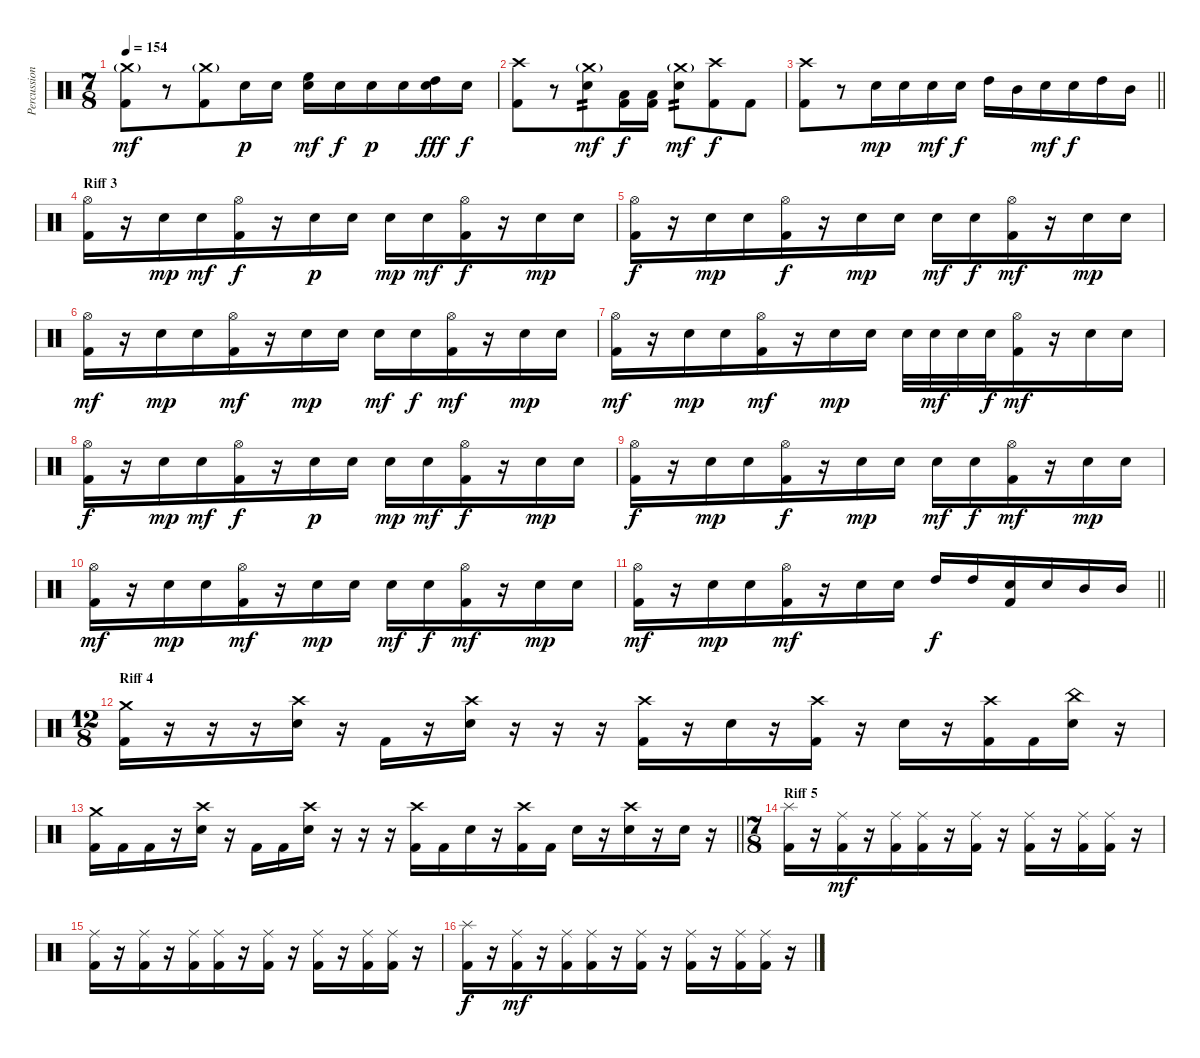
\track ("Percussions" "Percussion") {instrument percussion}
\staff {score}
\articulation defaults
\ts (7 8)
\tempo 154
\clef neutral
\ks c
("Crash medium (hit)"{g} "Kick (hit) 2").8{dy mf} r.8 ("Crash medium (hit)"{g} "Kick (hit) 2").8 "Electric Snare (hit)".16{dy p} "Electric Snare (hit)".16 ("High Floor Tom (hit)" "Electric Snare (hit)").16{dy mf} "Electric Snare (hit)".16{dy f} "Electric Snare (hit)".16{dy p} "Electric Snare (hit)".16 ("High Tom (hit)" "Electric Snare (hit)").16{dy fff} "Electric Snare (hit)".16{dy f} |
("Crash high (hit)" "Kick (hit) 2").8 r.8 ("Crash medium (hit)"{g} "Electric Snare (hit)").8{tp 2 dy mf} ("Low Floor Tom (hit)" "Kick (hit) 2").16{dy f} ("Low Floor Tom (hit)" "Kick (hit) 2").16 ("Crash medium (hit)"{g} "Electric Snare (hit)").8{tp 2 dy mf} ("Crash high (hit)" "Kick (hit) 2").8{dy f} "Kick (hit) 2".8 |
\barLineRight lightlight
("Crash high (hit)" "Kick (hit) 2").8 r.8 "Electric Snare (hit)".16{dy mp} "Electric Snare (hit)".16 "Electric Snare (hit)".16{dy mf} "Electric Snare (hit)".16{dy f} "High Tom (hit)".16 "Mid Tom (hit)".16 "Electric Snare (hit)".16{dy mf} "Electric Snare (hit)".16{dy f} "High Tom (hit)".16 "Mid Tom (hit)".16 |
\section ("" "Riff 3")
("Hi-Hat (open)" "Kick (hit) 2").16 r.16 "Electric Snare (hit)".16{dy mp} "Electric Snare (hit)".16{dy mf} ("Hi-Hat (open)" "Kick (hit) 2").16{dy f} r.16 "Electric Snare (hit)".16{dy p} "Electric Snare (hit)".16 "Electric Snare (hit)".16{dy mp} "Electric Snare (hit)".16{dy mf} ("Hi-Hat (open)" "Kick (hit) 2").16{dy f} r.16 "Electric Snare (hit)".16{dy mp} "Electric Snare (hit)".16 |
("Hi-Hat (open)" "Kick (hit) 2").16{dy f} r.16 "Electric Snare (hit)".16{dy mp} "Electric Snare (hit)".16 ("Hi-Hat (open)" "Kick (hit) 2").16{dy f} r.16 "Electric Snare (hit)".16{dy mp} "Electric Snare (hit)".16 "Electric Snare (hit)".16{dy mf} "Electric Snare (hit)".16{dy f} ("Hi-Hat (open)" "Kick (hit) 2").16{dy mf} r.16 "Electric Snare (hit)".16{dy mp} "Electric Snare (hit)".16 |
("Hi-Hat (open)" "Kick (hit) 2").16{dy mf} r.16 "Electric Snare (hit)".16{dy mp} "Electric Snare (hit)".16 ("Hi-Hat (open)" "Kick (hit) 2").16{dy mf} r.16 "Electric Snare (hit)".16{dy mp} "Electric Snare (hit)".16 "Electric Snare (hit)".16{dy mf} "Electric Snare (hit)".16{dy f} ("Hi-Hat (open)" "Kick (hit) 2").16{dy mf} r.16 "Electric Snare (hit)".16{dy mp} "Electric Snare (hit)".16 |
("Hi-Hat (open)" "Kick (hit) 2").16{dy mf} r.16 "Electric Snare (hit)".16{dy mp} "Electric Snare (hit)".16 ("Hi-Hat (open)" "Kick (hit) 2").16{dy mf} r.16 "Electric Snare (hit)".16{dy mp} "Electric Snare (hit)".16 "Electric Snare (hit)".32 "Electric Snare (hit)".32{dy mf} "Electric Snare (hit)".32 "Electric Snare (hit)".32{dy f} ("Hi-Hat (open)" "Kick (hit) 2").16{dy mf} r.16 "Electric Snare (hit)".16 "Electric Snare (hit)".16 |
("Hi-Hat (open)" "Kick (hit) 2").16{dy f} r.16 "Electric Snare (hit)".16{dy mp} "Electric Snare (hit)".16{dy mf} ("Hi-Hat (open)" "Kick (hit) 2").16{dy f} r.16 "Electric Snare (hit)".16{dy p} "Electric Snare (hit)".16 "Electric Snare (hit)".16{dy mp} "Electric Snare (hit)".16{dy mf} ("Hi-Hat (open)" "Kick (hit) 2").16{dy f} r.16 "Electric Snare (hit)".16{dy mp} "Electric Snare (hit)".16 |
("Hi-Hat (open)" "Kick (hit) 2").16{dy f} r.16 "Electric Snare (hit)".16{dy mp} "Electric Snare (hit)".16 ("Hi-Hat (open)" "Kick (hit) 2").16{dy f} r.16 "Electric Snare (hit)".16{dy mp} "Electric Snare (hit)".16 "Electric Snare (hit)".16{dy mf} "Electric Snare (hit)".16{dy f} ("Hi-Hat (open)" "Kick (hit) 2").16{dy mf} r.16 "Electric Snare (hit)".16{dy mp} "Electric Snare (hit)".16 |
("Hi-Hat (open)" "Kick (hit) 2").16{dy mf} r.16 "Electric Snare (hit)".16{dy mp} "Electric Snare (hit)".16 ("Hi-Hat (open)" "Kick (hit) 2").16{dy mf} r.16 "Electric Snare (hit)".16{dy mp} "Electric Snare (hit)".16 "Electric Snare (hit)".16{dy mf} "Electric Snare (hit)".16{dy f} ("Hi-Hat (open)" "Kick (hit) 2").16{dy mf} r.16 "Electric Snare (hit)".16{dy mp} "Electric Snare (hit)".16 |
\barLineRight lightlight
("Hi-Hat (open)" "Kick (hit) 2").16{dy mf} r.16 "Electric Snare (hit)".16{dy mp} "Electric Snare (hit)".16 ("Hi-Hat (open)" "Kick (hit) 2").16{dy mf} r.16 "Electric Snare (hit)".16 "Electric Snare (hit)".16 "High Tom (hit)".16{dy f} "High Tom (hit)".16 ("Electric Snare (hit)" "Kick (hit) 2").16 "Electric Snare (hit)".16 "Mid Tom (hit)".16 "Mid Tom (hit)".16 |
\ts (12 8)
\section ("" "Riff 4")
("Crash medium (hit)" "Kick (hit) 2").16 r.16 r.16 r.16 ("Crash high (hit)" "Electric Snare (hit)").16 r.16 "Kick (hit) 2".16 r.16 ("Crash high (hit)" "Electric Snare (hit)").16 r.16 r.16 r.16 ("Crash high (hit)" "Kick (hit) 2").16 r.16 "Electric Snare (hit)".16 r.16 ("Crash high (hit)" "Kick (hit) 2").16 r.16 "Electric Snare (hit)".16 r.16 ("Crash high (hit)" "Kick (hit) 2").16 "Kick (hit) 2".16 ("China (hit)" "Electric Snare (hit)").16 r.16 |
\barLineRight lightlight
("Crash medium (hit)" "Kick (hit) 2").16 "Kick (hit) 2".16 "Kick (hit) 2".16 r.16 ("Crash high (hit)" "Electric Snare (hit)").16 r.16 "Kick (hit) 2".16 "Kick (hit) 2".16 ("Crash high (hit)" "Electric Snare (hit)").16 r.16 r.16 r.16 ("Crash high (hit)" "Kick (hit) 2").16 "Kick (hit) 2".16 "Electric Snare (hit)".16 r.16 ("Crash high (hit)" "Kick (hit) 2").16 "Kick (hit) 2".16 "Electric Snare (hit)".16 r.16 ("Crash high (hit)" "Electric Snare (hit)").16 r.16 "Electric Snare (hit)".16 r.16 |
\ts (7 8)
\section ("" "Riff 5")
("Splash (hit)" "Kick (hit) 2").16 r.16 ("Ride (middle)" "Kick (hit) 2").16{dy mf} r.16 ("Ride (middle)" "Kick (hit) 2").16 ("Ride (middle)" "Kick (hit) 2").16 r.16 ("Ride (middle)" "Kick (hit) 2").16 r.16 ("Ride (middle)" "Kick (hit) 2").16 r.16 ("Ride (middle)" "Kick (hit) 2").16 ("Ride (middle)" "Kick (hit) 2").16 r.16 |
("Ride (middle)" "Kick (hit) 2").16 r.16 ("Ride (middle)" "Kick (hit) 2").16 r.16 ("Ride (middle)" "Kick (hit) 2").16 ("Ride (middle)" "Kick (hit) 2").16 r.16 ("Ride (middle)" "Kick (hit) 2").16 r.16 ("Ride (middle)" "Kick (hit) 2").16 r.16 ("Ride (middle)" "Kick (hit) 2").16 ("Ride (middle)" "Kick (hit) 2").16 r.16 |
("Splash (hit)" "Kick (hit) 2").16{dy f} r.16 ("Ride (middle)" "Kick (hit) 2").16{dy mf} r.16 ("Ride (middle)" "Kick (hit) 2").16 ("Ride (middle)" "Kick (hit) 2").16 r.16 ("Ride (middle)" "Kick (hit) 2").16 r.16 ("Ride (middle)" "Kick (hit) 2").16 r.16 ("Ride (middle)" "Kick (hit) 2").16 ("Ride (middle)" "Kick (hit) 2").16 r.16
